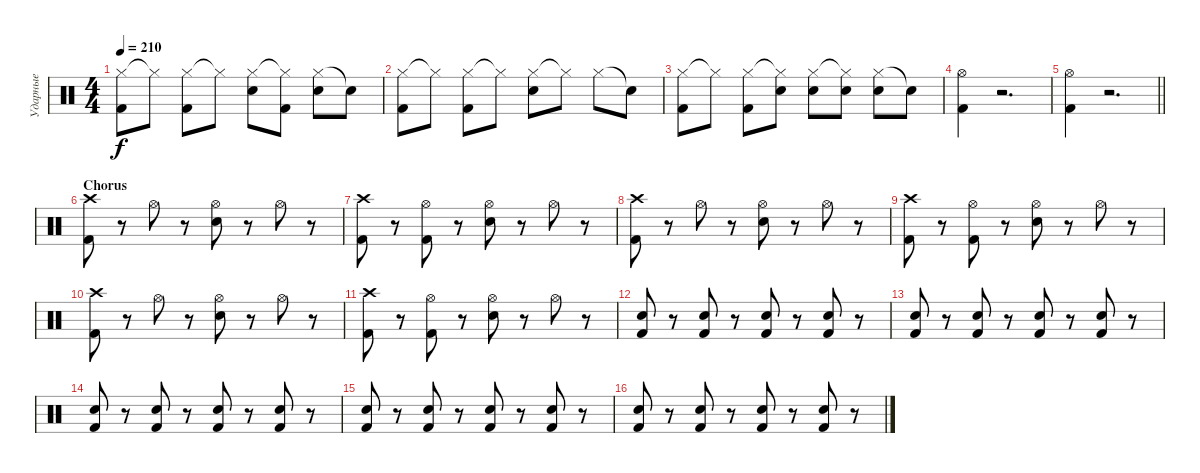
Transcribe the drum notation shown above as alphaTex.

\track ("Ударные" "Ударные") {instrument percussion}
\staff {score}
\articulation defaults
\ts (4 4)
\tempo 210
\clef neutral
\ks c
("Hi-Hat (closed)" "Kick (hit) 2").8{dy f} "Hi-Hat (closed)"{t}.8 ("Hi-Hat (closed)" "Kick (hit) 2").8 "Hi-Hat (closed)"{t}.8 ("Hi-Hat (closed)" "Snare (hit) 2").8 ("Hi-Hat (closed)"{t} "Kick (hit) 2").8 ("Hi-Hat (closed)" "Snare (hit) 2").8 "Snare (hit)"{t}.8 |
("Hi-Hat (closed)" "Kick (hit) 2").8 "Hi-Hat (closed)"{t}.8 ("Hi-Hat (closed)" "Kick (hit) 2").8 "Hi-Hat (closed)"{t}.8 ("Hi-Hat (closed)" "Snare (hit) 2").8 "Hi-Hat (closed)"{t}.8 "Hi-Hat (closed)".8 "Snare (hit)"{t}.8 |
("Hi-Hat (closed)" "Kick (hit) 2").8 "Hi-Hat (closed)"{t}.8 ("Hi-Hat (closed)" "Kick (hit) 2").8 ("Hi-Hat (closed)"{t} "Snare (hit) 2").8 ("Hi-Hat (closed)" "Snare (hit) 2").8 ("Hi-Hat (closed)"{t} "Snare (hit) 2").8 ("Hi-Hat (closed)" "Snare (hit) 2").8 "Snare (hit)"{t}.8 |
("Hi-Hat (open)" "Kick (hit) 2").4 r.2{d} |
\barLineRight lightlight
("Hi-Hat (open)" "Kick (hit) 2").4 r.2{d} |
\section ("" "Chorus ")
("Crash high (hit)" "Kick (hit) 2").8 r.8 "Hi-Hat (open)".8 r.8 ("Hi-Hat (open)" "Snare (hit) 2").8 r.8 "Hi-Hat (open)".8 r.8 |
("Crash high (hit)" "Kick (hit) 2").8 r.8 ("Hi-Hat (open)" "Kick (hit) 2").8 r.8 ("Hi-Hat (open)" "Snare (hit) 2").8 r.8 "Hi-Hat (open)".8 r.8 |
("Crash high (hit)" "Kick (hit) 2").8 r.8 "Hi-Hat (open)".8 r.8 ("Hi-Hat (open)" "Snare (hit) 2").8 r.8 "Hi-Hat (open)".8 r.8 |
("Crash high (hit)" "Kick (hit) 2").8 r.8 ("Hi-Hat (open)" "Kick (hit) 2").8 r.8 ("Hi-Hat (open)" "Snare (hit) 2").8 r.8 "Hi-Hat (open)".8 r.8 |
("Crash high (hit)" "Kick (hit) 2").8 r.8 "Hi-Hat (open)".8 r.8 ("Hi-Hat (open)" "Snare (hit) 2").8 r.8 "Hi-Hat (open)".8 r.8 |
("Crash high (hit)" "Kick (hit) 2").8 r.8 ("Hi-Hat (open)" "Kick (hit) 2").8 r.8 ("Hi-Hat (open)" "Snare (hit) 2").8 r.8 "Hi-Hat (open)".8 r.8 |
("Snare (hit) 2" "Kick (hit) 2").8 r.8 ("Snare (hit) 2" "Kick (hit) 2").8 r.8 ("Snare (hit) 2" "Kick (hit) 2").8 r.8 ("Snare (hit) 2" "Kick (hit) 2").8 r.8 |
("Snare (hit) 2" "Kick (hit) 2").8 r.8 ("Snare (hit) 2" "Kick (hit) 2").8 r.8 ("Snare (hit) 2" "Kick (hit) 2").8 r.8 ("Snare (hit) 2" "Kick (hit) 2").8 r.8 |
("Snare (hit) 2" "Kick (hit) 2").8 r.8 ("Snare (hit) 2" "Kick (hit) 2").8 r.8 ("Snare (hit) 2" "Kick (hit) 2").8 r.8 ("Snare (hit) 2" "Kick (hit) 2").8 r.8 |
("Snare (hit) 2" "Kick (hit) 2").8 r.8 ("Snare (hit) 2" "Kick (hit) 2").8 r.8 ("Snare (hit) 2" "Kick (hit) 2").8 r.8 ("Snare (hit) 2" "Kick (hit) 2").8 r.8 |
("Snare (hit) 2" "Kick (hit) 2").8 r.8 ("Snare (hit) 2" "Kick (hit) 2").8 r.8 ("Snare (hit) 2" "Kick (hit) 2").8 r.8 ("Snare (hit) 2" "Kick (hit) 2").8 r.8
